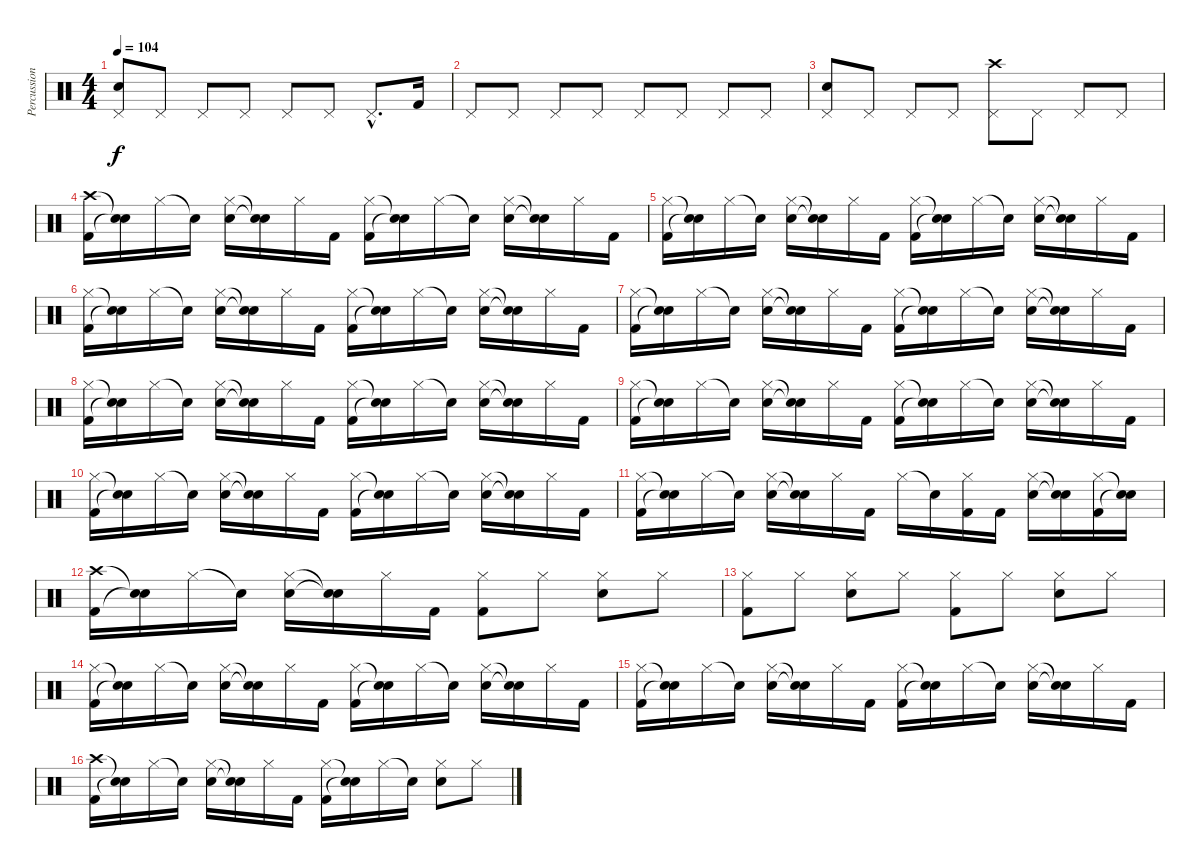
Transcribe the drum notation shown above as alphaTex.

\track ("Percussion" "Percussion") {instrument percussion}
\staff {score}
\articulation defaults
\ts (4 4)
\tempo 104
\clef neutral
\ks c
("Pedal Hi-Hat (hit)" "Snare (hit) 2").8{dy f} "Pedal Hi-Hat (hit)".8 "Pedal Hi-Hat (hit)".8 "Pedal Hi-Hat (hit)".8 "Pedal Hi-Hat (hit)".8 "Pedal Hi-Hat (hit)".8 "Pedal Hi-Hat (hit)"{hac}.8{d} "Kick (hit) 2".16 |
"Pedal Hi-Hat (hit)".8 "Pedal Hi-Hat (hit)".8 "Pedal Hi-Hat (hit)".8 "Pedal Hi-Hat (hit)".8 "Pedal Hi-Hat (hit)".8 "Pedal Hi-Hat (hit)".8 "Pedal Hi-Hat (hit)".8 "Pedal Hi-Hat (hit)".8 |
("Pedal Hi-Hat (hit)" "Snare (hit) 2").8 "Pedal Hi-Hat (hit)".8 "Pedal Hi-Hat (hit)".8 "Pedal Hi-Hat (hit)".8 ("Crash high (hit)" "Pedal Hi-Hat (hit)").8 "Pedal Hi-Hat (hit)".8 "Pedal Hi-Hat (hit)".8 "Pedal Hi-Hat (hit)".8 |
("Crash high (hit)" "Kick (hit) 2").16 ("Snare (hit)"{t} "Snare (hit)"{t}).16 "Hi-Hat (closed)".16 "Snare (hit)"{t}.16 ("Hi-Hat (closed)" "Snare (hit) 2").16 ("Snare (hit)"{t} "Snare (hit)"{t}).16 "Hi-Hat (closed)".16 "Kick (hit) 2".16 ("Hi-Hat (closed)" "Kick (hit) 2").16 ("Snare (hit)"{t} "Snare (hit)"{t}).16 "Hi-Hat (closed)".16 "Snare (hit)"{t}.16 ("Hi-Hat (closed)" "Snare (hit) 2").16 ("Snare (hit)"{t} "Snare (hit)"{t}).16 "Hi-Hat (closed)".16 "Kick (hit) 2".16 |
("Hi-Hat (closed)" "Kick (hit) 2").16 ("Snare (hit)"{t} "Snare (hit)"{t}).16 "Hi-Hat (closed)".16 "Snare (hit)"{t}.16 ("Hi-Hat (closed)" "Snare (hit) 2").16 ("Snare (hit)"{t} "Snare (hit)"{t}).16 "Hi-Hat (closed)".16 "Kick (hit) 2".16 ("Hi-Hat (closed)" "Kick (hit) 2").16 ("Snare (hit)"{t} "Snare (hit)"{t}).16 "Hi-Hat (closed)".16 "Snare (hit)"{t}.16 ("Hi-Hat (closed)" "Snare (hit) 2").16 ("Snare (hit)"{t} "Snare (hit)"{t}).16 "Hi-Hat (closed)".16 "Kick (hit) 2".16 |
("Hi-Hat (closed)" "Kick (hit) 2").16 ("Snare (hit)"{t} "Snare (hit)"{t}).16 "Hi-Hat (closed)".16 "Snare (hit)"{t}.16 ("Hi-Hat (closed)" "Snare (hit) 2").16 ("Snare (hit)"{t} "Snare (hit)"{t}).16 "Hi-Hat (closed)".16 "Kick (hit) 2".16 ("Hi-Hat (closed)" "Kick (hit) 2").16 ("Snare (hit)"{t} "Snare (hit)"{t}).16 "Hi-Hat (closed)".16 "Snare (hit)"{t}.16 ("Hi-Hat (closed)" "Snare (hit) 2").16 ("Snare (hit)"{t} "Snare (hit)"{t}).16 "Hi-Hat (closed)".16 "Kick (hit) 2".16 |
("Hi-Hat (closed)" "Kick (hit) 2").16 ("Snare (hit)"{t} "Snare (hit)"{t}).16 "Hi-Hat (closed)".16 "Snare (hit)"{t}.16 ("Hi-Hat (closed)" "Snare (hit) 2").16 ("Snare (hit)"{t} "Snare (hit)"{t}).16 "Hi-Hat (closed)".16 "Kick (hit) 2".16 ("Hi-Hat (closed)" "Kick (hit) 2").16 ("Snare (hit)"{t} "Snare (hit)"{t}).16 "Hi-Hat (closed)".16 "Snare (hit)"{t}.16 ("Hi-Hat (closed)" "Snare (hit) 2").16 ("Snare (hit)"{t} "Snare (hit)"{t}).16 "Hi-Hat (closed)".16 "Kick (hit) 2".16 |
("Hi-Hat (closed)" "Kick (hit) 2").16 ("Snare (hit)"{t} "Snare (hit)"{t}).16 "Hi-Hat (closed)".16 "Snare (hit)"{t}.16 ("Hi-Hat (closed)" "Snare (hit) 2").16 ("Snare (hit)"{t} "Snare (hit)"{t}).16 "Hi-Hat (closed)".16 "Kick (hit) 2".16 ("Hi-Hat (closed)" "Kick (hit) 2").16 ("Snare (hit)"{t} "Snare (hit)"{t}).16 "Hi-Hat (closed)".16 "Snare (hit)"{t}.16 ("Hi-Hat (closed)" "Snare (hit) 2").16 ("Snare (hit)"{t} "Snare (hit)"{t}).16 "Hi-Hat (closed)".16 "Kick (hit) 2".16 |
("Hi-Hat (closed)" "Kick (hit) 2").16 ("Snare (hit)"{t} "Snare (hit)"{t}).16 "Hi-Hat (closed)".16 "Snare (hit)"{t}.16 ("Hi-Hat (closed)" "Snare (hit) 2").16 ("Snare (hit)"{t} "Snare (hit)"{t}).16 "Hi-Hat (closed)".16 "Kick (hit) 2".16 ("Hi-Hat (closed)" "Kick (hit) 2").16 ("Snare (hit)"{t} "Snare (hit)"{t}).16 "Hi-Hat (closed)".16 "Snare (hit)"{t}.16 ("Hi-Hat (closed)" "Snare (hit) 2").16 ("Snare (hit)"{t} "Snare (hit)"{t}).16 "Hi-Hat (closed)".16 "Kick (hit) 2".16 |
("Hi-Hat (closed)" "Kick (hit) 2").16 ("Snare (hit)"{t} "Snare (hit)"{t}).16 "Hi-Hat (closed)".16 "Snare (hit)"{t}.16 ("Hi-Hat (closed)" "Snare (hit) 2").16 ("Snare (hit)"{t} "Snare (hit)"{t}).16 "Hi-Hat (closed)".16 "Kick (hit) 2".16 ("Hi-Hat (closed)" "Kick (hit) 2").16 ("Snare (hit)"{t} "Snare (hit)"{t}).16 "Hi-Hat (closed)".16 "Snare (hit)"{t}.16 ("Hi-Hat (closed)" "Snare (hit) 2").16 ("Snare (hit)"{t} "Snare (hit)"{t}).16 "Hi-Hat (closed)".16 "Kick (hit) 2".16 |
("Hi-Hat (closed)" "Kick (hit) 2").16 ("Snare (hit)"{t} "Snare (hit)"{t}).16 "Hi-Hat (closed)".16 "Snare (hit)"{t}.16 ("Hi-Hat (closed)" "Snare (hit) 2").16 ("Snare (hit)"{t} "Snare (hit)"{t}).16 "Hi-Hat (closed)".16 "Kick (hit) 2".16 "Hi-Hat (closed)".16 "Snare (hit)"{t}.16 ("Hi-Hat (closed)" "Kick (hit) 2").16 "Kick (hit) 2".16 ("Hi-Hat (closed)" "Snare (hit) 2").16 ("Snare (hit)"{t} "Snare (hit)"{t}).16 ("Hi-Hat (closed)" "Kick (hit) 2").16 ("Snare (hit)"{t} "Snare (hit)"{t}).16 |
("Crash high (hit)" "Kick (hit) 2").16 ("Snare (hit)"{t} "Snare (hit)"{t}).16 "Hi-Hat (closed)".16 "Snare (hit)"{t}.16 ("Hi-Hat (closed)" "Snare (hit) 2").16 ("Snare (hit)"{t} "Snare (hit)"{t}).16 "Hi-Hat (closed)".16 "Kick (hit) 2".16 ("Hi-Hat (closed)" "Kick (hit) 2").8 "Hi-Hat (closed)".8 ("Hi-Hat (closed)" "Snare (hit) 2").8 "Hi-Hat (closed)".8 |
("Hi-Hat (closed)" "Kick (hit) 2").8 "Hi-Hat (closed)".8 ("Hi-Hat (closed)" "Snare (hit) 2").8 "Hi-Hat (closed)".8 ("Hi-Hat (closed)" "Kick (hit) 2").8 "Hi-Hat (closed)".8 ("Hi-Hat (closed)" "Snare (hit) 2").8 "Hi-Hat (closed)".8 |
("Hi-Hat (closed)" "Kick (hit) 2").16 ("Snare (hit)"{t} "Snare (hit)"{t}).16 "Hi-Hat (closed)".16 "Snare (hit)"{t}.16 ("Hi-Hat (closed)" "Snare (hit) 2").16 ("Snare (hit)"{t} "Snare (hit)"{t}).16 "Hi-Hat (closed)".16 "Kick (hit) 2".16 ("Hi-Hat (closed)" "Kick (hit) 2").16 ("Snare (hit)"{t} "Snare (hit)"{t}).16 "Hi-Hat (closed)".16 "Snare (hit)"{t}.16 ("Hi-Hat (closed)" "Snare (hit) 2").16 ("Snare (hit)"{t} "Snare (hit)"{t}).16 "Hi-Hat (closed)".16 "Kick (hit) 2".16 |
("Hi-Hat (closed)" "Kick (hit) 2").16 ("Snare (hit)"{t} "Snare (hit)"{t}).16 "Hi-Hat (closed)".16 "Snare (hit)"{t}.16 ("Hi-Hat (closed)" "Snare (hit) 2").16 ("Snare (hit)"{t} "Snare (hit)"{t}).16 "Hi-Hat (closed)".16 "Kick (hit) 2".16 ("Hi-Hat (closed)" "Kick (hit) 2").16 ("Snare (hit)"{t} "Snare (hit)"{t}).16 "Hi-Hat (closed)".16 "Snare (hit)"{t}.16 ("Hi-Hat (closed)" "Snare (hit) 2").16 ("Snare (hit)"{t} "Snare (hit)"{t}).16 "Hi-Hat (closed)".16 "Kick (hit) 2".16 |
("Crash high (hit)" "Kick (hit) 2").16 ("Snare (hit)"{t} "Snare (hit)"{t}).16 "Hi-Hat (closed)".16 "Snare (hit)"{t}.16 ("Hi-Hat (closed)" "Snare (hit) 2").16 ("Snare (hit)"{t} "Snare (hit)"{t}).16 "Hi-Hat (closed)".16 "Kick (hit) 2".16 ("Hi-Hat (closed)" "Kick (hit) 2").16 ("Snare (hit)"{t} "Snare (hit)"{t}).16 "Hi-Hat (closed)".16 "Snare (hit)"{t}.16 ("Hi-Hat (closed)" "Snare (hit) 2").8 "Hi-Hat (closed)".8
